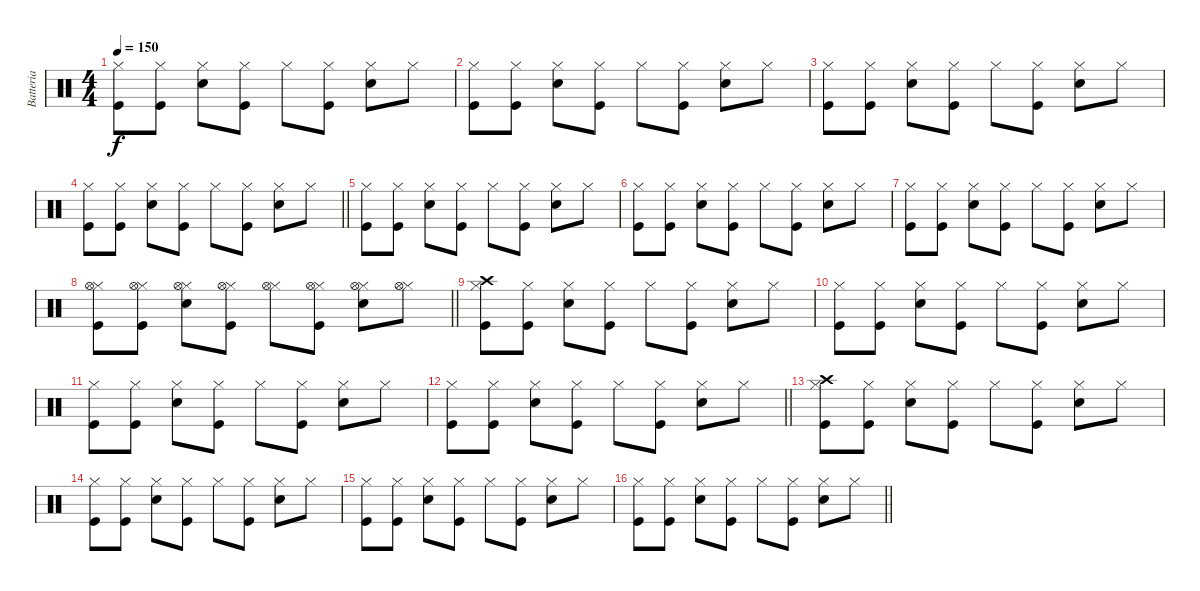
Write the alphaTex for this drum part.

\track ("Batteria" "Batteria") {instrument percussion}
\staff {score}
\articulation defaults
\ts (4 4)
\tempo 150
\clef neutral
\ks c
("Hi-Hat (closed)" "Kick (hit)").8{dy f} ("Hi-Hat (closed)" "Kick (hit)").8 ("Hi-Hat (closed)" "Snare (hit) 2").8 ("Hi-Hat (closed)" "Kick (hit)").8 "Hi-Hat (closed)".8 ("Hi-Hat (closed)" "Kick (hit)").8 ("Hi-Hat (closed)" "Snare (hit) 2").8 "Hi-Hat (closed)".8 |
("Hi-Hat (closed)" "Kick (hit)").8 ("Hi-Hat (closed)" "Kick (hit)").8 ("Hi-Hat (closed)" "Snare (hit) 2").8 ("Hi-Hat (closed)" "Kick (hit)").8 "Hi-Hat (closed)".8 ("Hi-Hat (closed)" "Kick (hit)").8 ("Hi-Hat (closed)" "Snare (hit) 2").8 "Hi-Hat (closed)".8 |
("Hi-Hat (closed)" "Kick (hit)").8 ("Hi-Hat (closed)" "Kick (hit)").8 ("Hi-Hat (closed)" "Snare (hit) 2").8 ("Hi-Hat (closed)" "Kick (hit)").8 "Hi-Hat (closed)".8 ("Hi-Hat (closed)" "Kick (hit)").8 ("Hi-Hat (closed)" "Snare (hit) 2").8 "Hi-Hat (closed)".8 |
\barLineRight lightlight
("Hi-Hat (closed)" "Kick (hit)").8 ("Hi-Hat (closed)" "Kick (hit)").8 ("Hi-Hat (closed)" "Snare (hit) 2").8 ("Hi-Hat (closed)" "Kick (hit)").8 "Hi-Hat (closed)".8 ("Hi-Hat (closed)" "Kick (hit)").8 ("Hi-Hat (closed)" "Snare (hit) 2").8 "Hi-Hat (closed)".8 |
("Hi-Hat (closed)" "Kick (hit)").8 ("Hi-Hat (closed)" "Kick (hit)").8 ("Hi-Hat (closed)" "Snare (hit) 2").8 ("Hi-Hat (closed)" "Kick (hit)").8 "Hi-Hat (closed)".8 ("Hi-Hat (closed)" "Kick (hit)").8 ("Hi-Hat (closed)" "Snare (hit) 2").8 "Hi-Hat (closed)".8 |
("Hi-Hat (closed)" "Kick (hit)").8 ("Hi-Hat (closed)" "Kick (hit)").8 ("Hi-Hat (closed)" "Snare (hit) 2").8 ("Hi-Hat (closed)" "Kick (hit)").8 "Hi-Hat (closed)".8 ("Hi-Hat (closed)" "Kick (hit)").8 ("Hi-Hat (closed)" "Snare (hit) 2").8 "Hi-Hat (closed)".8 |
("Hi-Hat (closed)" "Kick (hit)").8 ("Hi-Hat (closed)" "Kick (hit)").8 ("Hi-Hat (closed)" "Snare (hit) 2").8 ("Hi-Hat (closed)" "Kick (hit)").8 "Hi-Hat (closed)".8 ("Hi-Hat (closed)" "Kick (hit)").8 ("Hi-Hat (closed)" "Snare (hit) 2").8 "Hi-Hat (closed)".8 |
\barLineRight lightlight
("Hi-Hat (closed)" "Hi-Hat (open)" "Kick (hit)").8 ("Hi-Hat (closed)" "Hi-Hat (open)" "Kick (hit)").8 ("Hi-Hat (closed)" "Snare (hit) 2" "Hi-Hat (open)").8 ("Hi-Hat (closed)" "Hi-Hat (open)" "Kick (hit)").8 ("Hi-Hat (closed)" "Hi-Hat (open)").8 ("Hi-Hat (closed)" "Hi-Hat (open)" "Kick (hit)").8 ("Hi-Hat (closed)" "Snare (hit) 2" "Hi-Hat (open)").8 ("Hi-Hat (closed)" "Hi-Hat (open)").8 |
("Hi-Hat (closed)" "Crash high (hit)" "Kick (hit)").8 ("Hi-Hat (closed)" "Kick (hit)").8 ("Hi-Hat (closed)" "Snare (hit) 2").8 ("Hi-Hat (closed)" "Kick (hit)").8 "Hi-Hat (closed)".8 ("Hi-Hat (closed)" "Kick (hit)").8 ("Hi-Hat (closed)" "Snare (hit) 2").8 "Hi-Hat (closed)".8 |
("Hi-Hat (closed)" "Kick (hit)").8 ("Hi-Hat (closed)" "Kick (hit)").8 ("Hi-Hat (closed)" "Snare (hit) 2").8 ("Hi-Hat (closed)" "Kick (hit)").8 "Hi-Hat (closed)".8 ("Hi-Hat (closed)" "Kick (hit)").8 ("Hi-Hat (closed)" "Snare (hit) 2").8 "Hi-Hat (closed)".8 |
("Hi-Hat (closed)" "Kick (hit)").8 ("Hi-Hat (closed)" "Kick (hit)").8 ("Hi-Hat (closed)" "Snare (hit) 2").8 ("Hi-Hat (closed)" "Kick (hit)").8 "Hi-Hat (closed)".8 ("Hi-Hat (closed)" "Kick (hit)").8 ("Hi-Hat (closed)" "Snare (hit) 2").8 "Hi-Hat (closed)".8 |
\barLineRight lightlight
("Hi-Hat (closed)" "Kick (hit)").8 ("Hi-Hat (closed)" "Kick (hit)").8 ("Hi-Hat (closed)" "Snare (hit) 2").8 ("Hi-Hat (closed)" "Kick (hit)").8 "Hi-Hat (closed)".8 ("Hi-Hat (closed)" "Kick (hit)").8 ("Hi-Hat (closed)" "Snare (hit) 2").8 "Hi-Hat (closed)".8 |
("Hi-Hat (closed)" "Crash high (hit)" "Kick (hit)").8 ("Hi-Hat (closed)" "Kick (hit)").8 ("Hi-Hat (closed)" "Snare (hit) 2").8 ("Hi-Hat (closed)" "Kick (hit)").8 "Hi-Hat (closed)".8 ("Hi-Hat (closed)" "Kick (hit)").8 ("Hi-Hat (closed)" "Snare (hit) 2").8 "Hi-Hat (closed)".8 |
("Hi-Hat (closed)" "Kick (hit)").8 ("Hi-Hat (closed)" "Kick (hit)").8 ("Hi-Hat (closed)" "Snare (hit) 2").8 ("Hi-Hat (closed)" "Kick (hit)").8 "Hi-Hat (closed)".8 ("Hi-Hat (closed)" "Kick (hit)").8 ("Hi-Hat (closed)" "Snare (hit) 2").8 "Hi-Hat (closed)".8 |
("Hi-Hat (closed)" "Kick (hit)").8 ("Hi-Hat (closed)" "Kick (hit)").8 ("Hi-Hat (closed)" "Snare (hit) 2").8 ("Hi-Hat (closed)" "Kick (hit)").8 "Hi-Hat (closed)".8 ("Hi-Hat (closed)" "Kick (hit)").8 ("Hi-Hat (closed)" "Snare (hit) 2").8 "Hi-Hat (closed)".8 |
\barLineRight lightlight
("Hi-Hat (closed)" "Kick (hit)").8 ("Hi-Hat (closed)" "Kick (hit)").8 ("Hi-Hat (closed)" "Snare (hit) 2").8 ("Hi-Hat (closed)" "Kick (hit)").8 "Hi-Hat (closed)".8 ("Hi-Hat (closed)" "Kick (hit)").8 ("Hi-Hat (closed)" "Snare (hit) 2").8 "Hi-Hat (closed)".8
